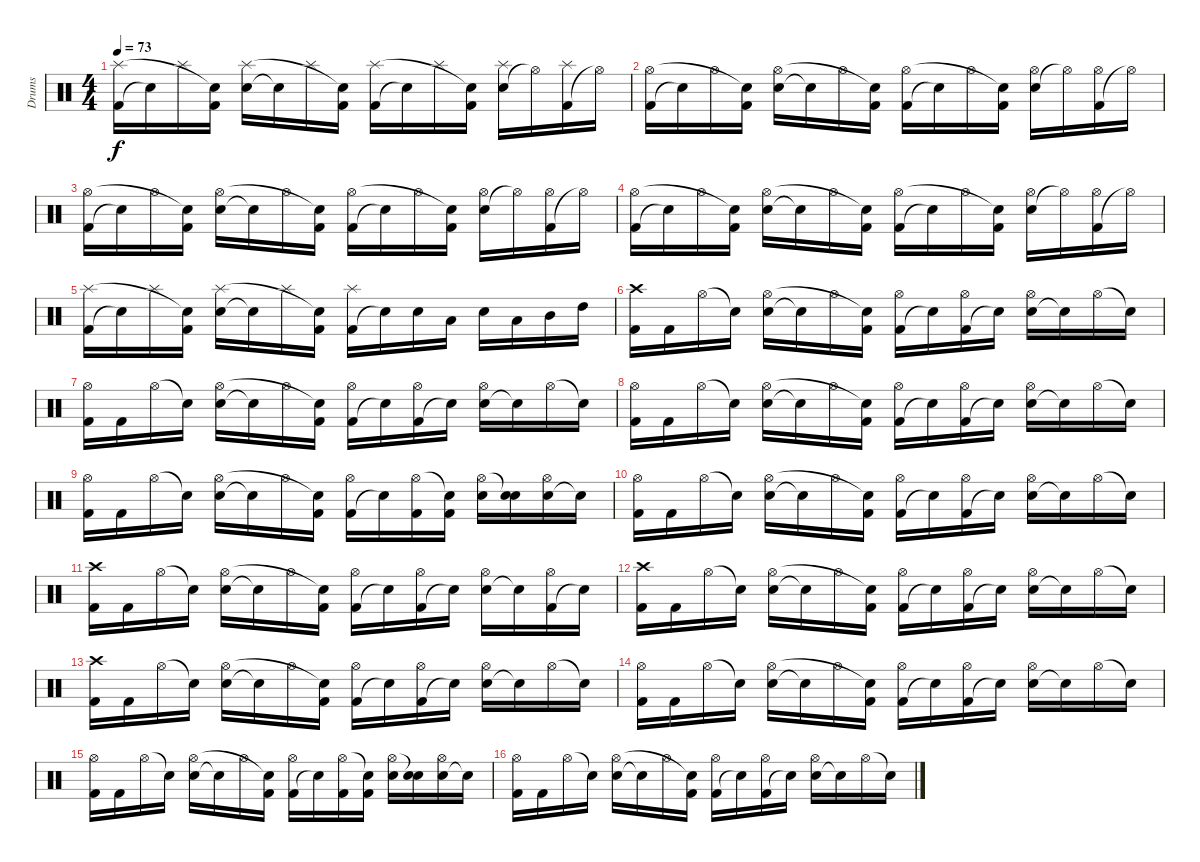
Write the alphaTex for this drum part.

\track ("Drums" "Drums") {instrument percussion}
\staff {score}
\articulation defaults
\ts (4 4)
\tempo 73
\clef neutral
\ks c
("Kick (hit) 2" "Splash (hit)").16{dy f} "Snare (hit)"{t}.16 "Splash (hit)".16 ("Kick (hit) 2" "Snare (hit)"{t}).16 ("Snare (hit) 2" "Splash (hit)").16 "Snare (hit)"{t}.16 "Splash (hit)".16 ("Kick (hit) 2" "Snare (hit)"{t}).16 ("Kick (hit) 2" "Splash (hit)").16 "Snare (hit)"{t}.16 "Splash (hit)".16 ("Kick (hit) 2" "Snare (hit)"{t}).16 ("Snare (hit) 2" "Splash (hit)").16 "Hi-Hat (open)"{t}.16 ("Kick (hit) 2" "Splash (hit)").16 "Hi-Hat (open)"{t}.16 |
("Kick (hit) 2" "Hi-Hat (open)").16 "Snare (hit)"{t}.16 "Hi-Hat (open)".16 ("Kick (hit) 2" "Snare (hit)"{t}).16 ("Snare (hit) 2" "Hi-Hat (open)").16 "Snare (hit)"{t}.16 "Hi-Hat (open)".16 ("Kick (hit) 2" "Snare (hit)"{t}).16 ("Kick (hit) 2" "Hi-Hat (open)").16 "Snare (hit)"{t}.16 "Hi-Hat (open)".16 ("Kick (hit) 2" "Snare (hit)"{t}).16 ("Snare (hit) 2" "Hi-Hat (open)").16 "Hi-Hat (open)"{t}.16 ("Kick (hit) 2" "Hi-Hat (open)").16 "Hi-Hat (open)"{t}.16 |
("Kick (hit) 2" "Hi-Hat (open)").16 "Snare (hit)"{t}.16 "Hi-Hat (open)".16 ("Kick (hit) 2" "Snare (hit)"{t}).16 ("Snare (hit) 2" "Hi-Hat (open)").16 "Snare (hit)"{t}.16 "Hi-Hat (open)".16 ("Kick (hit) 2" "Snare (hit)"{t}).16 ("Kick (hit) 2" "Hi-Hat (open)").16 "Snare (hit)"{t}.16 "Hi-Hat (open)".16 ("Kick (hit) 2" "Snare (hit)"{t}).16 ("Snare (hit) 2" "Hi-Hat (open)").16 "Hi-Hat (open)"{t}.16 ("Kick (hit) 2" "Hi-Hat (open)").16 "Hi-Hat (open)"{t}.16 |
("Kick (hit) 2" "Hi-Hat (open)").16 "Snare (hit)"{t}.16 "Hi-Hat (open)".16 ("Kick (hit) 2" "Snare (hit)"{t}).16 ("Snare (hit) 2" "Hi-Hat (open)").16 "Snare (hit)"{t}.16 "Hi-Hat (open)".16 ("Kick (hit) 2" "Snare (hit)"{t}).16 ("Kick (hit) 2" "Hi-Hat (open)").16 "Snare (hit)"{t}.16 "Hi-Hat (open)".16 ("Kick (hit) 2" "Snare (hit)"{t}).16 ("Snare (hit) 2" "Hi-Hat (open)").16 "Hi-Hat (open)"{t}.16 ("Kick (hit) 2" "Hi-Hat (open)").16 "Hi-Hat (open)"{t}.16 |
("Kick (hit) 2" "Splash (hit)").16 "Snare (hit)"{t}.16 "Splash (hit)".16 ("Kick (hit) 2" "Snare (hit)"{t}).16 ("Snare (hit) 2" "Splash (hit)").16 "Snare (hit)"{t}.16 "Splash (hit)".16 ("Kick (hit) 2" "Snare (hit)"{t}).16 ("Kick (hit) 2" "Splash (hit)").16 "Snare (hit)"{t}.16 "Snare (hit) 2".16 "Low Tom (hit)".16 "Snare (hit) 2".16 "Low Tom (hit)".16 "Mid Tom (hit)".16 "High Tom (hit)".16 |
("Kick (hit) 2" "Crash high (hit)").16 "Kick (hit) 2".16 "Hi-Hat (open)".16 "Snare (hit)"{t}.16 ("Snare (hit) 2" "Hi-Hat (open)").16 "Snare (hit)"{t}.16 "Hi-Hat (open)".16 ("Kick (hit) 2" "Snare (hit)"{t}).16 ("Kick (hit) 2" "Hi-Hat (open)").16 "Snare (hit)"{t}.16 ("Kick (hit) 2" "Hi-Hat (open)").16 "Snare (hit)"{t}.16 ("Snare (hit) 2" "Hi-Hat (open)").16 "Snare (hit)"{t}.16 "Hi-Hat (open)".16 "Snare (hit)"{t}.16 |
("Kick (hit) 2" "Hi-Hat (open)").16 "Kick (hit) 2".16 "Hi-Hat (open)".16 "Snare (hit)"{t}.16 ("Snare (hit) 2" "Hi-Hat (open)").16 "Snare (hit)"{t}.16 "Hi-Hat (open)".16 ("Kick (hit) 2" "Snare (hit)"{t}).16 ("Kick (hit) 2" "Hi-Hat (open)").16 "Snare (hit)"{t}.16 ("Kick (hit) 2" "Hi-Hat (open)").16 "Snare (hit)"{t}.16 ("Snare (hit) 2" "Hi-Hat (open)").16 "Snare (hit)"{t}.16 "Hi-Hat (open)".16 "Snare (hit)"{t}.16 |
("Kick (hit) 2" "Hi-Hat (open)").16 "Kick (hit) 2".16 "Hi-Hat (open)".16 "Snare (hit)"{t}.16 ("Snare (hit) 2" "Hi-Hat (open)").16 "Snare (hit)"{t}.16 "Hi-Hat (open)".16 ("Kick (hit) 2" "Snare (hit)"{t}).16 ("Kick (hit) 2" "Hi-Hat (open)").16 "Snare (hit)"{t}.16 ("Kick (hit) 2" "Hi-Hat (open)").16 "Snare (hit)"{t}.16 ("Snare (hit) 2" "Hi-Hat (open)").16 "Snare (hit)"{t}.16 "Hi-Hat (open)".16 "Snare (hit)"{t}.16 |
("Kick (hit) 2" "Hi-Hat (open)").16 "Kick (hit) 2".16 "Hi-Hat (open)".16 "Snare (hit)"{t}.16 ("Snare (hit) 2" "Hi-Hat (open)").16 "Snare (hit)"{t}.16 "Hi-Hat (open)".16 ("Kick (hit) 2" "Snare (hit)"{t}).16 ("Kick (hit) 2" "Hi-Hat (open)").16 "Snare (hit)"{t}.16 ("Kick (hit) 2" "Hi-Hat (open)").16 ("Kick (hit) 2" "Snare (hit)"{t}).16 ("Snare (hit) 2" "Hi-Hat (open)").16 ("Snare (hit) 2" "Snare (hit)"{t}).16 ("Snare (hit) 2" "Hi-Hat (open)").16 "Snare (hit)"{t}.16 |
("Kick (hit) 2" "Hi-Hat (open)").16 "Kick (hit) 2".16 "Hi-Hat (open)".16 "Snare (hit)"{t}.16 ("Snare (hit) 2" "Hi-Hat (open)").16 "Snare (hit)"{t}.16 "Hi-Hat (open)".16 ("Kick (hit) 2" "Snare (hit)"{t}).16 ("Kick (hit) 2" "Hi-Hat (open)").16 "Snare (hit)"{t}.16 ("Kick (hit) 2" "Hi-Hat (open)").16 "Snare (hit)"{t}.16 ("Snare (hit) 2" "Hi-Hat (open)").16 "Snare (hit)"{t}.16 "Hi-Hat (open)".16 "Snare (hit)"{t}.16 |
("Kick (hit) 2" "Crash high (hit)").16 "Kick (hit) 2".16 "Hi-Hat (open)".16 "Snare (hit)"{t}.16 ("Snare (hit) 2" "Hi-Hat (open)").16 "Snare (hit)"{t}.16 "Hi-Hat (open)".16 ("Kick (hit) 2" "Snare (hit)"{t}).16 ("Kick (hit) 2" "Hi-Hat (open)").16 "Snare (hit)"{t}.16 ("Kick (hit) 2" "Hi-Hat (open)").16 "Snare (hit)"{t}.16 ("Snare (hit) 2" "Hi-Hat (open)").16 "Snare (hit)"{t}.16 ("Kick (hit) 2" "Hi-Hat (open)").16 "Snare (hit)"{t}.16 |
("Kick (hit) 2" "Crash high (hit)").16 "Kick (hit) 2".16 "Hi-Hat (open)".16 "Snare (hit)"{t}.16 ("Snare (hit) 2" "Hi-Hat (open)").16 "Snare (hit)"{t}.16 "Hi-Hat (open)".16 ("Kick (hit) 2" "Snare (hit)"{t}).16 ("Kick (hit) 2" "Hi-Hat (open)").16 "Snare (hit)"{t}.16 ("Kick (hit) 2" "Hi-Hat (open)").16 "Snare (hit)"{t}.16 ("Snare (hit) 2" "Hi-Hat (open)").16 "Snare (hit)"{t}.16 "Hi-Hat (open)".16 "Snare (hit)"{t}.16 |
("Kick (hit) 2" "Crash high (hit)").16 "Kick (hit) 2".16 "Hi-Hat (open)".16 "Snare (hit)"{t}.16 ("Snare (hit) 2" "Hi-Hat (open)").16 "Snare (hit)"{t}.16 "Hi-Hat (open)".16 ("Kick (hit) 2" "Snare (hit)"{t}).16 ("Kick (hit) 2" "Hi-Hat (open)").16 "Snare (hit)"{t}.16 ("Kick (hit) 2" "Hi-Hat (open)").16 "Snare (hit)"{t}.16 ("Snare (hit) 2" "Hi-Hat (open)").16 "Snare (hit)"{t}.16 "Hi-Hat (open)".16 "Snare (hit)"{t}.16 |
("Kick (hit) 2" "Hi-Hat (open)").16 "Kick (hit) 2".16 "Hi-Hat (open)".16 "Snare (hit)"{t}.16 ("Snare (hit) 2" "Hi-Hat (open)").16 "Snare (hit)"{t}.16 "Hi-Hat (open)".16 ("Kick (hit) 2" "Snare (hit)"{t}).16 ("Kick (hit) 2" "Hi-Hat (open)").16 "Snare (hit)"{t}.16 ("Kick (hit) 2" "Hi-Hat (open)").16 "Snare (hit)"{t}.16 ("Snare (hit) 2" "Hi-Hat (open)").16 "Snare (hit)"{t}.16 "Hi-Hat (open)".16 "Snare (hit)"{t}.16 |
("Kick (hit) 2" "Hi-Hat (open)").16 "Kick (hit) 2".16 "Hi-Hat (open)".16 "Snare (hit)"{t}.16 ("Snare (hit) 2" "Hi-Hat (open)").16 "Snare (hit)"{t}.16 "Hi-Hat (open)".16 ("Kick (hit) 2" "Snare (hit)"{t}).16 ("Kick (hit) 2" "Hi-Hat (open)").16 "Snare (hit)"{t}.16 ("Kick (hit) 2" "Hi-Hat (open)").16 ("Kick (hit) 2" "Snare (hit)"{t}).16 ("Snare (hit) 2" "Hi-Hat (open)").16 ("Snare (hit) 2" "Snare (hit)"{t}).16 ("Snare (hit) 2" "Hi-Hat (open)").16 "Snare (hit)"{t}.16 |
("Kick (hit) 2" "Hi-Hat (open)").16 "Kick (hit) 2".16 "Hi-Hat (open)".16 "Snare (hit)"{t}.16 ("Snare (hit) 2" "Hi-Hat (open)").16 "Snare (hit)"{t}.16 "Hi-Hat (open)".16 ("Kick (hit) 2" "Snare (hit)"{t}).16 ("Kick (hit) 2" "Hi-Hat (open)").16 "Snare (hit)"{t}.16 ("Kick (hit) 2" "Hi-Hat (open)").16 "Snare (hit)"{t}.16 ("Snare (hit) 2" "Hi-Hat (open)").16 "Snare (hit)"{t}.16 "Hi-Hat (open)".16 "Snare (hit)"{t}.16
